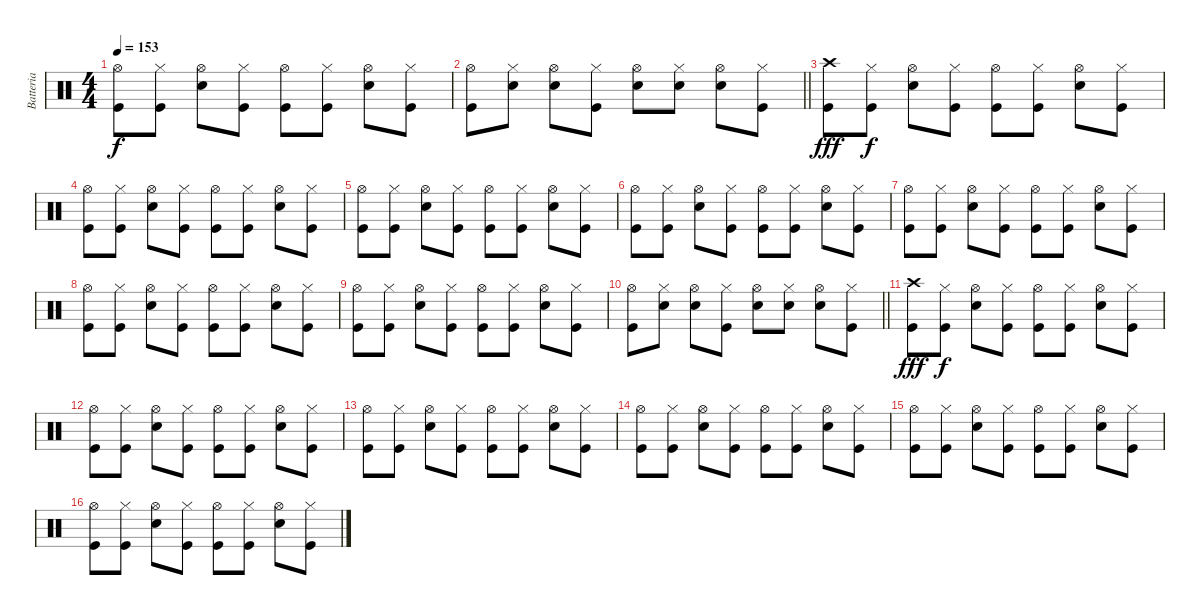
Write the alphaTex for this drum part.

\track ("Batteria" "Batteria") {instrument percussion}
\staff {score}
\articulation defaults
\ts (4 4)
\tempo 153
\clef neutral
\ks c
("Kick (hit)" "Hi-Hat (open)").8{dy f} ("Kick (hit)" "Hi-Hat (closed)").8 ("Snare (hit) 2" "Hi-Hat (open)").8 ("Kick (hit)" "Hi-Hat (closed)").8 ("Kick (hit)" "Hi-Hat (open)").8 ("Kick (hit)" "Hi-Hat (closed)").8 ("Snare (hit) 2" "Hi-Hat (open)").8 ("Kick (hit)" "Hi-Hat (closed)").8 |
\barLineRight lightlight
("Kick (hit)" "Hi-Hat (open)").8 ("Snare (hit) 2" "Hi-Hat (closed)").8 ("Snare (hit) 2" "Hi-Hat (open)").8 ("Kick (hit)" "Hi-Hat (closed)").8 ("Snare (hit) 2" "Hi-Hat (open)").8 ("Snare (hit) 2" "Hi-Hat (closed)").8 ("Snare (hit) 2" "Hi-Hat (open)").8 ("Kick (hit)" "Hi-Hat (closed)").8 |
("Kick (hit)" "Crash high (hit)").8{dy fff} ("Kick (hit)" "Hi-Hat (closed)").8{dy f} ("Snare (hit) 2" "Hi-Hat (open)").8 ("Kick (hit)" "Hi-Hat (closed)").8 ("Kick (hit)" "Hi-Hat (open)").8 ("Kick (hit)" "Hi-Hat (closed)").8 ("Snare (hit) 2" "Hi-Hat (open)").8 ("Kick (hit)" "Hi-Hat (closed)").8 |
("Kick (hit)" "Hi-Hat (open)").8 ("Kick (hit)" "Hi-Hat (closed)").8 ("Snare (hit) 2" "Hi-Hat (open)").8 ("Kick (hit)" "Hi-Hat (closed)").8 ("Kick (hit)" "Hi-Hat (open)").8 ("Kick (hit)" "Hi-Hat (closed)").8 ("Snare (hit) 2" "Hi-Hat (open)").8 ("Kick (hit)" "Hi-Hat (closed)").8 |
("Kick (hit)" "Hi-Hat (open)").8 ("Kick (hit)" "Hi-Hat (closed)").8 ("Snare (hit) 2" "Hi-Hat (open)").8 ("Kick (hit)" "Hi-Hat (closed)").8 ("Kick (hit)" "Hi-Hat (open)").8 ("Kick (hit)" "Hi-Hat (closed)").8 ("Snare (hit) 2" "Hi-Hat (open)").8 ("Kick (hit)" "Hi-Hat (closed)").8 |
("Kick (hit)" "Hi-Hat (open)").8 ("Kick (hit)" "Hi-Hat (closed)").8 ("Snare (hit) 2" "Hi-Hat (open)").8 ("Kick (hit)" "Hi-Hat (closed)").8 ("Kick (hit)" "Hi-Hat (open)").8 ("Kick (hit)" "Hi-Hat (closed)").8 ("Snare (hit) 2" "Hi-Hat (open)").8 ("Kick (hit)" "Hi-Hat (closed)").8 |
("Kick (hit)" "Hi-Hat (open)").8 ("Kick (hit)" "Hi-Hat (closed)").8 ("Snare (hit) 2" "Hi-Hat (open)").8 ("Kick (hit)" "Hi-Hat (closed)").8 ("Kick (hit)" "Hi-Hat (open)").8 ("Kick (hit)" "Hi-Hat (closed)").8 ("Snare (hit) 2" "Hi-Hat (open)").8 ("Kick (hit)" "Hi-Hat (closed)").8 |
("Kick (hit)" "Hi-Hat (open)").8 ("Kick (hit)" "Hi-Hat (closed)").8 ("Snare (hit) 2" "Hi-Hat (open)").8 ("Kick (hit)" "Hi-Hat (closed)").8 ("Kick (hit)" "Hi-Hat (open)").8 ("Kick (hit)" "Hi-Hat (closed)").8 ("Snare (hit) 2" "Hi-Hat (open)").8 ("Kick (hit)" "Hi-Hat (closed)").8 |
("Kick (hit)" "Hi-Hat (open)").8 ("Kick (hit)" "Hi-Hat (closed)").8 ("Snare (hit) 2" "Hi-Hat (open)").8 ("Kick (hit)" "Hi-Hat (closed)").8 ("Kick (hit)" "Hi-Hat (open)").8 ("Kick (hit)" "Hi-Hat (closed)").8 ("Snare (hit) 2" "Hi-Hat (open)").8 ("Kick (hit)" "Hi-Hat (closed)").8 |
\barLineRight lightlight
("Kick (hit)" "Hi-Hat (open)").8 ("Snare (hit) 2" "Hi-Hat (closed)").8 ("Snare (hit) 2" "Hi-Hat (open)").8 ("Kick (hit)" "Hi-Hat (closed)").8 ("Snare (hit) 2" "Hi-Hat (open)").8 ("Snare (hit) 2" "Hi-Hat (closed)").8 ("Snare (hit) 2" "Hi-Hat (open)").8 ("Kick (hit)" "Hi-Hat (closed)").8 |
("Kick (hit)" "Crash high (hit)").8{dy fff} ("Kick (hit)" "Hi-Hat (closed)").8{dy f} ("Snare (hit) 2" "Hi-Hat (open)").8 ("Kick (hit)" "Hi-Hat (closed)").8 ("Kick (hit)" "Hi-Hat (open)").8 ("Kick (hit)" "Hi-Hat (closed)").8 ("Snare (hit) 2" "Hi-Hat (open)").8 ("Kick (hit)" "Hi-Hat (closed)").8 |
("Kick (hit)" "Hi-Hat (open)").8 ("Kick (hit)" "Hi-Hat (closed)").8 ("Snare (hit) 2" "Hi-Hat (open)").8 ("Kick (hit)" "Hi-Hat (closed)").8 ("Kick (hit)" "Hi-Hat (open)").8 ("Kick (hit)" "Hi-Hat (closed)").8 ("Snare (hit) 2" "Hi-Hat (open)").8 ("Kick (hit)" "Hi-Hat (closed)").8 |
("Kick (hit)" "Hi-Hat (open)").8 ("Kick (hit)" "Hi-Hat (closed)").8 ("Snare (hit) 2" "Hi-Hat (open)").8 ("Kick (hit)" "Hi-Hat (closed)").8 ("Kick (hit)" "Hi-Hat (open)").8 ("Kick (hit)" "Hi-Hat (closed)").8 ("Snare (hit) 2" "Hi-Hat (open)").8 ("Kick (hit)" "Hi-Hat (closed)").8 |
("Kick (hit)" "Hi-Hat (open)").8 ("Kick (hit)" "Hi-Hat (closed)").8 ("Snare (hit) 2" "Hi-Hat (open)").8 ("Kick (hit)" "Hi-Hat (closed)").8 ("Kick (hit)" "Hi-Hat (open)").8 ("Kick (hit)" "Hi-Hat (closed)").8 ("Snare (hit) 2" "Hi-Hat (open)").8 ("Kick (hit)" "Hi-Hat (closed)").8 |
("Kick (hit)" "Hi-Hat (open)").8 ("Kick (hit)" "Hi-Hat (closed)").8 ("Snare (hit) 2" "Hi-Hat (open)").8 ("Kick (hit)" "Hi-Hat (closed)").8 ("Kick (hit)" "Hi-Hat (open)").8 ("Kick (hit)" "Hi-Hat (closed)").8 ("Snare (hit) 2" "Hi-Hat (open)").8 ("Kick (hit)" "Hi-Hat (closed)").8 |
("Kick (hit)" "Hi-Hat (open)").8 ("Kick (hit)" "Hi-Hat (closed)").8 ("Snare (hit) 2" "Hi-Hat (open)").8 ("Kick (hit)" "Hi-Hat (closed)").8 ("Kick (hit)" "Hi-Hat (open)").8 ("Kick (hit)" "Hi-Hat (closed)").8 ("Snare (hit) 2" "Hi-Hat (open)").8 ("Kick (hit)" "Hi-Hat (closed)").8
